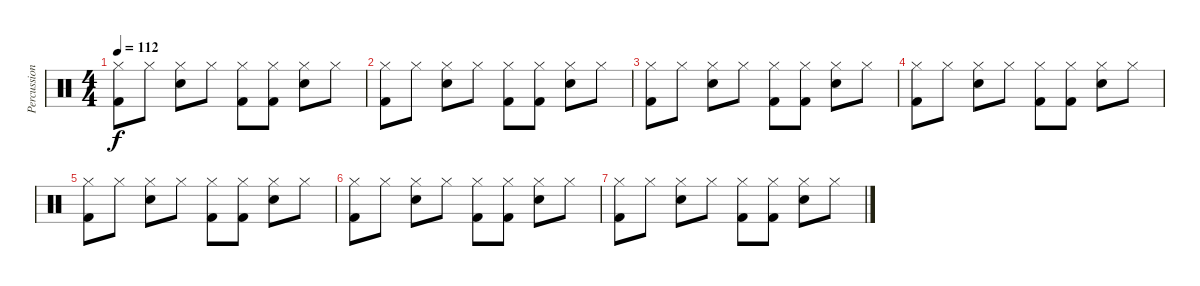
\track ("Percussion" "Percussion") {instrument percussion}
\staff {score}
\articulation defaults
\ts (4 4)
\tempo 112
\clef neutral
\ks c
("Hi-Hat (closed)" "Kick (hit) 2").8{dy f} "Hi-Hat (closed)".8 ("Hi-Hat (closed)" "Snare (hit) 2").8 "Hi-Hat (closed)".8 ("Hi-Hat (closed)" "Kick (hit) 2").8 ("Hi-Hat (closed)" "Kick (hit) 2").8 ("Hi-Hat (closed)" "Snare (hit) 2").8 "Hi-Hat (closed)".8 |
("Hi-Hat (closed)" "Kick (hit) 2").8 "Hi-Hat (closed)".8 ("Hi-Hat (closed)" "Snare (hit) 2").8 "Hi-Hat (closed)".8 ("Hi-Hat (closed)" "Kick (hit) 2").8 ("Hi-Hat (closed)" "Kick (hit) 2").8 ("Hi-Hat (closed)" "Snare (hit) 2").8 "Hi-Hat (closed)".8 |
("Hi-Hat (closed)" "Kick (hit) 2").8 "Hi-Hat (closed)".8 ("Hi-Hat (closed)" "Snare (hit) 2").8 "Hi-Hat (closed)".8 ("Hi-Hat (closed)" "Kick (hit) 2").8 ("Hi-Hat (closed)" "Kick (hit) 2").8 ("Hi-Hat (closed)" "Snare (hit) 2").8 "Hi-Hat (closed)".8 |
("Hi-Hat (closed)" "Kick (hit) 2").8 "Hi-Hat (closed)".8 ("Hi-Hat (closed)" "Snare (hit) 2").8 "Hi-Hat (closed)".8 ("Hi-Hat (closed)" "Kick (hit) 2").8 ("Hi-Hat (closed)" "Kick (hit) 2").8 ("Hi-Hat (closed)" "Snare (hit) 2").8 "Hi-Hat (closed)".8 |
("Hi-Hat (closed)" "Kick (hit) 2").8 "Hi-Hat (closed)".8 ("Hi-Hat (closed)" "Snare (hit) 2").8 "Hi-Hat (closed)".8 ("Hi-Hat (closed)" "Kick (hit) 2").8 ("Hi-Hat (closed)" "Kick (hit) 2").8 ("Hi-Hat (closed)" "Snare (hit) 2").8 "Hi-Hat (closed)".8 |
("Hi-Hat (closed)" "Kick (hit) 2").8 "Hi-Hat (closed)".8 ("Hi-Hat (closed)" "Snare (hit) 2").8 "Hi-Hat (closed)".8 ("Hi-Hat (closed)" "Kick (hit) 2").8 ("Hi-Hat (closed)" "Kick (hit) 2").8 ("Hi-Hat (closed)" "Snare (hit) 2").8 "Hi-Hat (closed)".8 |
("Hi-Hat (closed)" "Kick (hit) 2").8 "Hi-Hat (closed)".8 ("Hi-Hat (closed)" "Snare (hit) 2").8 "Hi-Hat (closed)".8 ("Hi-Hat (closed)" "Kick (hit) 2").8 ("Hi-Hat (closed)" "Kick (hit) 2").8 ("Hi-Hat (closed)" "Snare (hit) 2").8 "Hi-Hat (closed)".8
